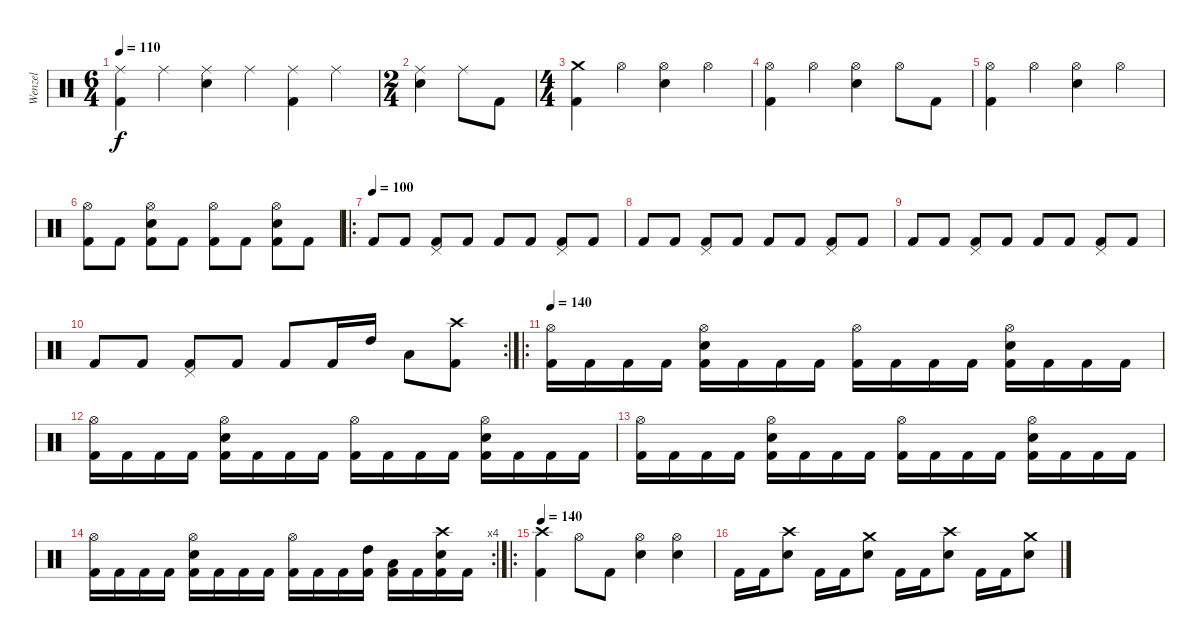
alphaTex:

\track ("Wenzel" "Wenzel") {instrument percussion}
\staff {score}
\articulation defaults
\ts (6 4)
\tempo 110
\clef neutral
\ks c
("Ride (middle)" "Kick (hit) 2").4{dy f} "Ride (middle)".4 ("Ride (middle)" "Snare (hit) 2").4 "Ride (middle)".4 ("Ride (middle)" "Kick (hit) 2").4 "Ride (middle)".4 |
\ts (2 4)
("Ride (middle)" "Snare (hit) 2").4 "Ride (middle)".8 "Kick (hit) 2".8 |
\ts (4 4)
("Crash medium (hit)" "Kick (hit) 2").4 "Hi-Hat (open)".4 ("Hi-Hat (open)" "Snare (hit) 2").4 "Hi-Hat (open)".4 |
("Hi-Hat (open)" "Kick (hit) 2").4 "Hi-Hat (open)".4 ("Hi-Hat (open)" "Snare (hit) 2").4 "Hi-Hat (open)".8 "Kick (hit) 2".8 |
("Hi-Hat (open)" "Kick (hit) 2").4 "Hi-Hat (open)".4 ("Hi-Hat (open)" "Snare (hit) 2").4 "Hi-Hat (open)".4 |
("Hi-Hat (open)" "Kick (hit) 2").8 "Kick (hit) 2".8 ("Hi-Hat (open)" "Snare (hit) 2" "Kick (hit) 2").8 "Kick (hit) 2".8 ("Hi-Hat (open)" "Kick (hit) 2").8 "Kick (hit) 2".8 ("Hi-Hat (open)" "Snare (hit) 2" "Kick (hit) 2").8 "Kick (hit) 2".8 |
\ro
\tempo (100)
"Kick (hit) 2".8 "Kick (hit) 2".8 ("Pedal Hi-Hat (hit)" "Kick (hit) 2").8 "Kick (hit) 2".8 "Kick (hit) 2".8 "Kick (hit) 2".8 ("Pedal Hi-Hat (hit)" "Kick (hit) 2").8 "Kick (hit) 2".8 |
"Kick (hit) 2".8 "Kick (hit) 2".8 ("Pedal Hi-Hat (hit)" "Kick (hit) 2").8 "Kick (hit) 2".8 "Kick (hit) 2".8 "Kick (hit) 2".8 ("Pedal Hi-Hat (hit)" "Kick (hit) 2").8 "Kick (hit) 2".8 |
"Kick (hit) 2".8 "Kick (hit) 2".8 ("Pedal Hi-Hat (hit)" "Kick (hit) 2").8 "Kick (hit) 2".8 "Kick (hit) 2".8 "Kick (hit) 2".8 ("Pedal Hi-Hat (hit)" "Kick (hit) 2").8 "Kick (hit) 2".8 |
\rc 2 "Kick (hit) 2".8 "Kick (hit) 2".8
("Pedal Hi-Hat (hit)" "Kick (hit) 2").8 "Kick (hit) 2".8 "Kick (hit) 2".8 "Kick (hit) 2".16 "High Tom (hit)".16 "Low Tom (hit)".8 ("Crash high (hit)" "Kick (hit) 2").8 |
\ro
\tempo 180
\tempo 140
("Hi-Hat (open)" "Kick (hit) 2").16 "Kick (hit) 2".16 "Kick (hit) 2".16 "Kick (hit) 2".16 ("Hi-Hat (open)" "Snare (hit) 2" "Kick (hit) 2").16 "Kick (hit) 2".16 "Kick (hit) 2".16 "Kick (hit) 2".16 ("Hi-Hat (open)" "Kick (hit) 2").16 "Kick (hit) 2".16 "Kick (hit) 2".16 "Kick (hit) 2".16 ("Hi-Hat (open)" "Snare (hit) 2" "Kick (hit) 2").16 "Kick (hit) 2".16 "Kick (hit) 2".16 "Kick (hit) 2".16 |
("Hi-Hat (open)" "Kick (hit) 2").16 "Kick (hit) 2".16 "Kick (hit) 2".16 "Kick (hit) 2".16 ("Hi-Hat (open)" "Snare (hit) 2" "Kick (hit) 2").16 "Kick (hit) 2".16 "Kick (hit) 2".16 "Kick (hit) 2".16 ("Hi-Hat (open)" "Kick (hit) 2").16 "Kick (hit) 2".16 "Kick (hit) 2".16 "Kick (hit) 2".16 ("Hi-Hat (open)" "Snare (hit) 2" "Kick (hit) 2").16 "Kick (hit) 2".16 "Kick (hit) 2".16 "Kick (hit) 2".16 |
("Hi-Hat (open)" "Kick (hit) 2").16 "Kick (hit) 2".16 "Kick (hit) 2".16 "Kick (hit) 2".16 ("Hi-Hat (open)" "Snare (hit) 2" "Kick (hit) 2").16 "Kick (hit) 2".16 "Kick (hit) 2".16 "Kick (hit) 2".16 ("Hi-Hat (open)" "Kick (hit) 2").16 "Kick (hit) 2".16 "Kick (hit) 2".16 "Kick (hit) 2".16 ("Hi-Hat (open)" "Snare (hit) 2" "Kick (hit) 2").16 "Kick (hit) 2".16 "Kick (hit) 2".16 "Kick (hit) 2".16 |
\rc 4
("Hi-Hat (open)" "Kick (hit) 2").16 "Kick (hit) 2".16 "Kick (hit) 2".16 "Kick (hit) 2".16 ("Hi-Hat (open)" "Snare (hit) 2" "Kick (hit) 2").16 "Kick (hit) 2".16 "Kick (hit) 2".16 "Kick (hit) 2".16 ("Hi-Hat (open)" "Kick (hit) 2").16 "Kick (hit) 2".16 "Kick (hit) 2".16 ("High Tom (hit)" "Kick (hit) 2").16 ("Low Tom (hit)" "Kick (hit) 2").16 "Kick (hit) 2".16 ("Crash high (hit)" "Snare (hit) 2" "Kick (hit) 2").16 "Kick (hit) 2".16 |
\ro
\tempo 140
("Crash high (hit)" "Kick (hit) 2").4 "Hi-Hat (open)".8 "Kick (hit) 2".8 ("Hi-Hat (open)" "Snare (hit) 2").4 ("Hi-Hat (open)" "Snare (hit) 2").4 |
"Kick (hit) 2".16 "Kick (hit) 2".16 ("Crash high (hit)" "Snare (hit) 2").8 "Kick (hit) 2".16 "Kick (hit) 2".16 ("Crash medium (hit)" "Snare (hit) 2").8 "Kick (hit) 2".16 "Kick (hit) 2".16 ("Crash high (hit)" "Snare (hit) 2").8 "Kick (hit) 2".16 "Kick (hit) 2".16 ("Crash medium (hit)" "Snare (hit) 2").8
